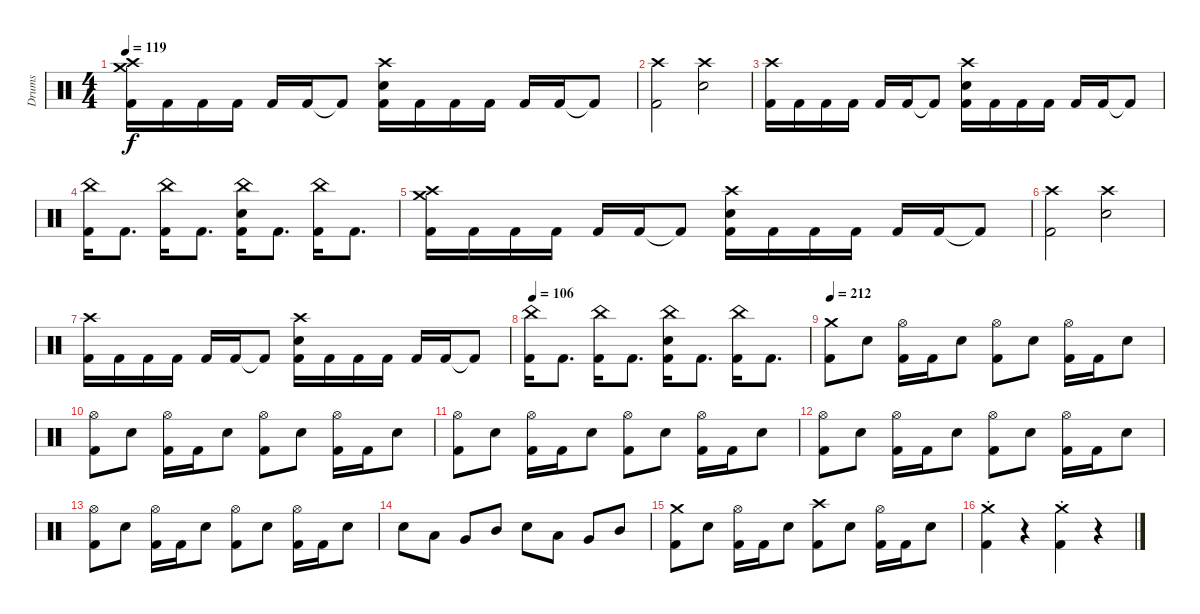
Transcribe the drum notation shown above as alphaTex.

\track ("Drums" "Drums") {instrument percussion}
\staff {score}
\articulation defaults
\ts (4 4)
\tempo 119
\clef neutral
\ks c
("Crash medium (hit)" "Crash high (hit)" "Kick (hit) 2").16{dy f} "Kick (hit) 2".16 "Kick (hit) 2".16 "Kick (hit) 2".16 "Kick (hit) 2".16 "Kick (hit) 2".16 "Kick (hit) 2"{t}.8 ("Crash high (hit)" "Electric Snare (hit)" "Kick (hit) 2").16 "Kick (hit) 2".16 "Kick (hit) 2".16 "Kick (hit) 2".16 "Kick (hit) 2".16 "Kick (hit) 2".16 "Kick (hit) 2"{t}.8 |
("Crash high (hit)" "Kick (hit) 2").2 ("Crash high (hit)" "Electric Snare (hit)").2 |
("Crash high (hit)" "Kick (hit) 2").16 "Kick (hit) 2".16 "Kick (hit) 2".16 "Kick (hit) 2".16 "Kick (hit) 2".16 "Kick (hit) 2".16 "Kick (hit) 2"{t}.8 ("Crash high (hit)" "Electric Snare (hit)" "Kick (hit) 2").16 "Kick (hit) 2".16 "Kick (hit) 2".16 "Kick (hit) 2".16 "Kick (hit) 2".16 "Kick (hit) 2".16 "Kick (hit) 2"{t}.8 |
("China (hit)" "Kick (hit) 2").16 "Kick (hit) 2".8{d} ("China (hit)" "Kick (hit) 2").16 "Kick (hit) 2".8{d} ("China (hit)" "Electric Snare (hit)" "Kick (hit) 2").16 "Kick (hit) 2".8{d} ("China (hit)" "Kick (hit) 2").16 "Kick (hit) 2".8{d} |
("Crash medium (hit)" "Crash high (hit)" "Kick (hit) 2").16 "Kick (hit) 2".16 "Kick (hit) 2".16 "Kick (hit) 2".16 "Kick (hit) 2".16 "Kick (hit) 2".16 "Kick (hit) 2"{t}.8 ("Crash high (hit)" "Electric Snare (hit)" "Kick (hit) 2").16 "Kick (hit) 2".16 "Kick (hit) 2".16 "Kick (hit) 2".16 "Kick (hit) 2".16 "Kick (hit) 2".16 "Kick (hit) 2"{t}.8 |
("Crash high (hit)" "Kick (hit) 2").2 ("Crash high (hit)" "Electric Snare (hit)").2 |
("Crash high (hit)" "Kick (hit) 2").16 "Kick (hit) 2".16 "Kick (hit) 2".16 "Kick (hit) 2".16 "Kick (hit) 2".16 "Kick (hit) 2".16 "Kick (hit) 2"{t}.8 ("Crash high (hit)" "Electric Snare (hit)" "Kick (hit) 2").16 "Kick (hit) 2".16 "Kick (hit) 2".16 "Kick (hit) 2".16 "Kick (hit) 2".16 "Kick (hit) 2".16 "Kick (hit) 2"{t}.8 |
\tempo 106
("China (hit)" "Kick (hit) 2").16 "Kick (hit) 2".8{d} ("China (hit)" "Kick (hit) 2").16 "Kick (hit) 2".8{d} ("China (hit)" "Electric Snare (hit)" "Kick (hit) 2").16 "Kick (hit) 2".8{d} ("China (hit)" "Kick (hit) 2").16 "Kick (hit) 2".8{d} |
\tempo 212
("Crash medium (hit)" "Kick (hit) 2").8 "Electric Snare (hit)".8 ("Hi-Hat (open)" "Kick (hit) 2").16 "Kick (hit) 2".16 "Electric Snare (hit)".8 ("Hi-Hat (open)" "Kick (hit) 2").8 "Electric Snare (hit)".8 ("Hi-Hat (open)" "Kick (hit) 2").16 "Kick (hit) 2".16 "Electric Snare (hit)".8 |
("Hi-Hat (open)" "Kick (hit) 2").8 "Electric Snare (hit)".8 ("Hi-Hat (open)" "Kick (hit) 2").16 "Kick (hit) 2".16 "Electric Snare (hit)".8 ("Hi-Hat (open)" "Kick (hit) 2").8 "Electric Snare (hit)".8 ("Hi-Hat (open)" "Kick (hit) 2").16 "Kick (hit) 2".16 "Electric Snare (hit)".8 |
("Hi-Hat (open)" "Kick (hit) 2").8 "Electric Snare (hit)".8 ("Hi-Hat (open)" "Kick (hit) 2").16 "Kick (hit) 2".16 "Electric Snare (hit)".8 ("Hi-Hat (open)" "Kick (hit) 2").8 "Electric Snare (hit)".8 ("Hi-Hat (open)" "Kick (hit) 2").16 "Kick (hit) 2".16 "Electric Snare (hit)".8 |
("Hi-Hat (open)" "Kick (hit) 2").8 "Electric Snare (hit)".8 ("Hi-Hat (open)" "Kick (hit) 2").16 "Kick (hit) 2".16 "Electric Snare (hit)".8 ("Hi-Hat (open)" "Kick (hit) 2").8 "Electric Snare (hit)".8 ("Hi-Hat (open)" "Kick (hit) 2").16 "Kick (hit) 2".16 "Electric Snare (hit)".8 |
("Hi-Hat (open)" "Kick (hit) 2").8 "Electric Snare (hit)".8 ("Hi-Hat (open)" "Kick (hit) 2").16 "Kick (hit) 2".16 "Electric Snare (hit)".8 ("Hi-Hat (open)" "Kick (hit) 2").8 "Electric Snare (hit)".8 ("Hi-Hat (open)" "Kick (hit) 2").16 "Kick (hit) 2".16 "Electric Snare (hit)".8 |
"Electric Snare (hit)".8 "Low Tom (hit)".8 "Very Low Tom (hit)".8 "Mid Tom (hit)".8 "Electric Snare (hit)".8 "Low Tom (hit)".8 "Very Low Tom (hit)".8 "Mid Tom (hit)".8 |
("Crash medium (hit)" "Kick (hit) 2").8 "Electric Snare (hit)".8 ("Hi-Hat (open)" "Kick (hit) 2").16 "Kick (hit) 2".16 "Electric Snare (hit)".8 ("Crash high (hit)" "Kick (hit) 2").8 "Electric Snare (hit)".8 ("Hi-Hat (open)" "Kick (hit) 2").16 "Kick (hit) 2".16 "Electric Snare (hit)".8 |
("Crash medium (hit)"{st} "Kick (hit) 2").4 r.4{volume 0} ("Crash medium (hit)"{st} "Kick (hit) 2").4{volume 14} r.4{volume 0}
